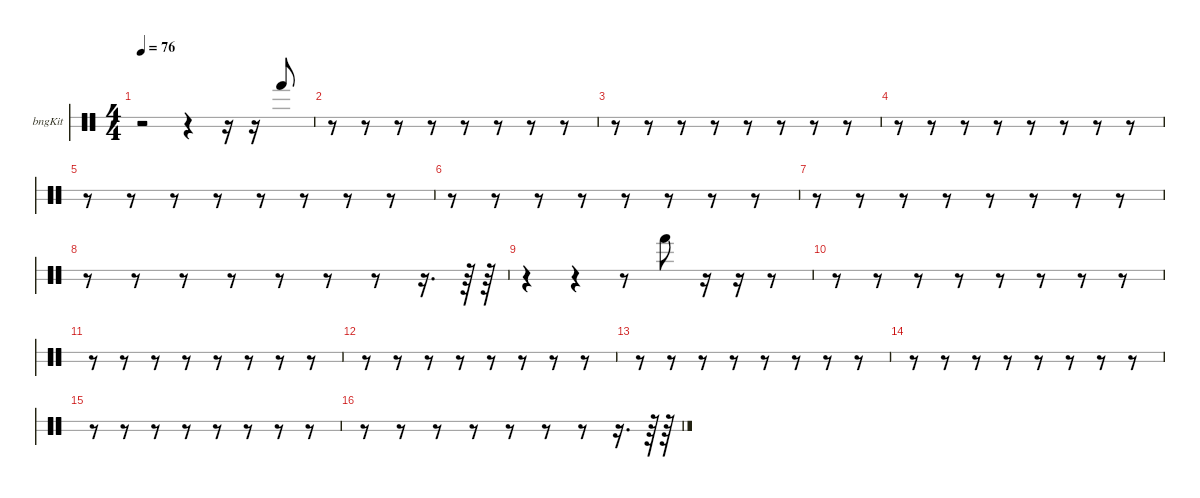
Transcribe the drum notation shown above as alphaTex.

\hideDynamics
\bracketExtendMode nobrackets
\firstSystemTrackNameOrientation horizontal
\otherSystemsTrackNameOrientation horizontal
\track ("Bongos" "bngKit") {instrument percussion}
\staff {score 2}
\articulation defaults
\ts (4 4)
\beaming (8 2 2 2 2)
\tempo 76
\clef neutral
\ks c
r.2{dy f beam Up} r.4{beam Up} r.16{beam Up} r.16{beam Up} "Hand (hit)".8{beam Up} |
r.8{beam Down} r.8{beam Down} r.8{beam Down} r.8{beam Down} r.8{beam Down} r.8{beam Down} r.8{beam Down} r.8{beam Down} |
r.8{beam Down} r.8{beam Down} r.8{beam Down} r.8{beam Down} r.8{beam Down} r.8{beam Down} r.8{beam Down} r.8{beam Down} |
r.8{beam Down} r.8{beam Down} r.8{beam Down} r.8{beam Down} r.8{beam Down} r.8{beam Down} r.8{beam Down} r.8{beam Down} |
r.8{beam Down} r.8{beam Down} r.8{beam Down} r.8{beam Down} r.8{beam Down} r.8{beam Down} r.8{beam Down} r.8{beam Down} |
r.8{beam Down} r.8{beam Down} r.8{beam Down} r.8{beam Down} r.8{beam Down} r.8{beam Down} r.8{beam Down} r.8{beam Down} |
r.8{beam Down} r.8{beam Down} r.8{beam Down} r.8{beam Down} r.8{beam Down} r.8{beam Down} r.8{beam Down} r.8{beam Down} |
r.8{beam Down} r.8{beam Down} r.8{beam Down} r.8{beam Down} r.8{beam Down} r.8{beam Down} r.8{beam Down} r.16{d beam Down} r.64{beam Down} r.64{beam Down} |
r.4{beam Down} r.4{beam Down} r.8{beam Down} "Hand (hit)".8{beam Up} r.16{beam Up} r.16{beam Up} r.8{beam Up} |
r.8{beam Down} r.8{beam Down} r.8{beam Down} r.8{beam Down} r.8{beam Down} r.8{beam Down} r.8{beam Down} r.8{beam Down} |
r.8{beam Down} r.8{beam Down} r.8{beam Down} r.8{beam Down} r.8{beam Down} r.8{beam Down} r.8{beam Down} r.8{beam Down} |
r.8{beam Down} r.8{beam Down} r.8{beam Down} r.8{beam Down} r.8{beam Down} r.8{beam Down} r.8{beam Down} r.8{beam Down} |
r.8{beam Down} r.8{beam Down} r.8{beam Down} r.8{beam Down} r.8{beam Down} r.8{beam Down} r.8{beam Down} r.8{beam Down} |
r.8{beam Down} r.8{beam Down} r.8{beam Down} r.8{beam Down} r.8{beam Down} r.8{beam Down} r.8{beam Down} r.8{beam Down} |
r.8{beam Down} r.8{beam Down} r.8{beam Down} r.8{beam Down} r.8{beam Down} r.8{beam Down} r.8{beam Down} r.8{beam Down} |
r.8{beam Down} r.8{beam Down} r.8{beam Down} r.8{beam Down} r.8{beam Down} r.8{beam Down} r.8{beam Down} r.16{d beam Down} r.64{beam Down} r.64{beam Down}
